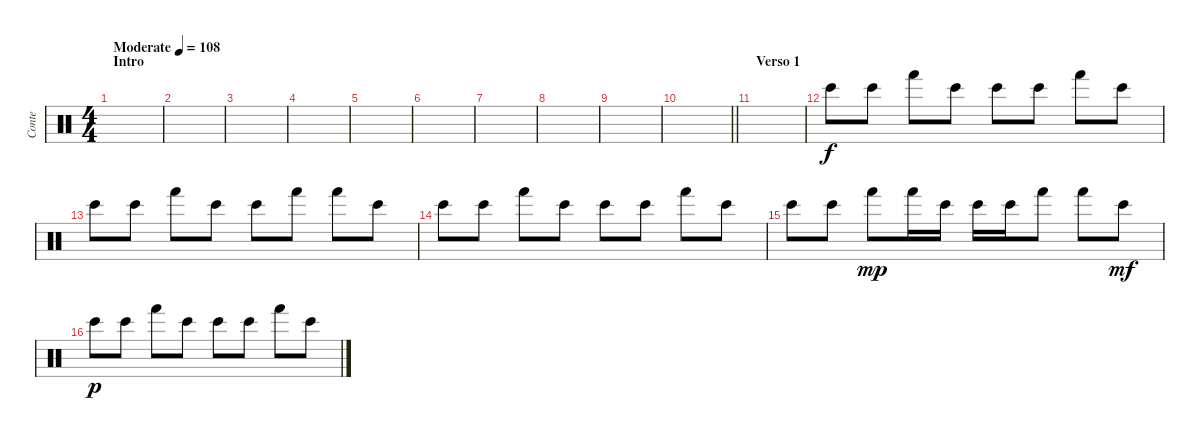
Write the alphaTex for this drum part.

\track ("Conte" "Conte") {instrument percussion}
\staff {score}
\articulation defaults
\ts (4 4)
\section ("" "Intro")
\tempo (108 "Moderate")
\clef neutral
\ks c
|
|
|
|
|
|
|
|
|
\barLineRight lightlight
|
\section ("" "Verso 1")
|
"Bongo High (hit)".8 "Bongo High (hit)".8 "Hand (hit)".8 "Bongo High (hit)".8 "Bongo High (hit)".8 "Bongo High (hit)".8 "Hand (hit)".8 "Bongo High (hit)".8 |
"Bongo High (hit)".8 "Bongo High (hit)".8 "Hand (hit)".8 "Bongo High (hit)".8 "Bongo High (hit)".8 "Hand (hit)".8 "Hand (hit)".8 "Bongo High (hit)".8 |
"Bongo High (hit)".8 "Bongo High (hit)".8 "Hand (hit)".8 "Bongo High (hit)".8 "Bongo High (hit)".8 "Bongo High (hit)".8 "Hand (hit)".8 "Bongo High (hit)".8 |
"Bongo High (hit)".8 "Bongo High (hit)".8 "Hand (hit)".8{dy mp} "Hand (hit)".16 "Bongo High (hit)".16 "Bongo High (hit)".16 "Bongo High (hit)".16 "Hand (hit)".8 "Hand (hit)".8 "Bongo High (hit)".8{dy mf} |
"Bongo High (hit)".8{dy p} "Bongo High (hit)".8 "Hand (hit)".8 "Bongo High (hit)".8 "Bongo High (hit)".8 "Bongo High (hit)".8 "Hand (hit)".8 "Bongo High (hit)".8
